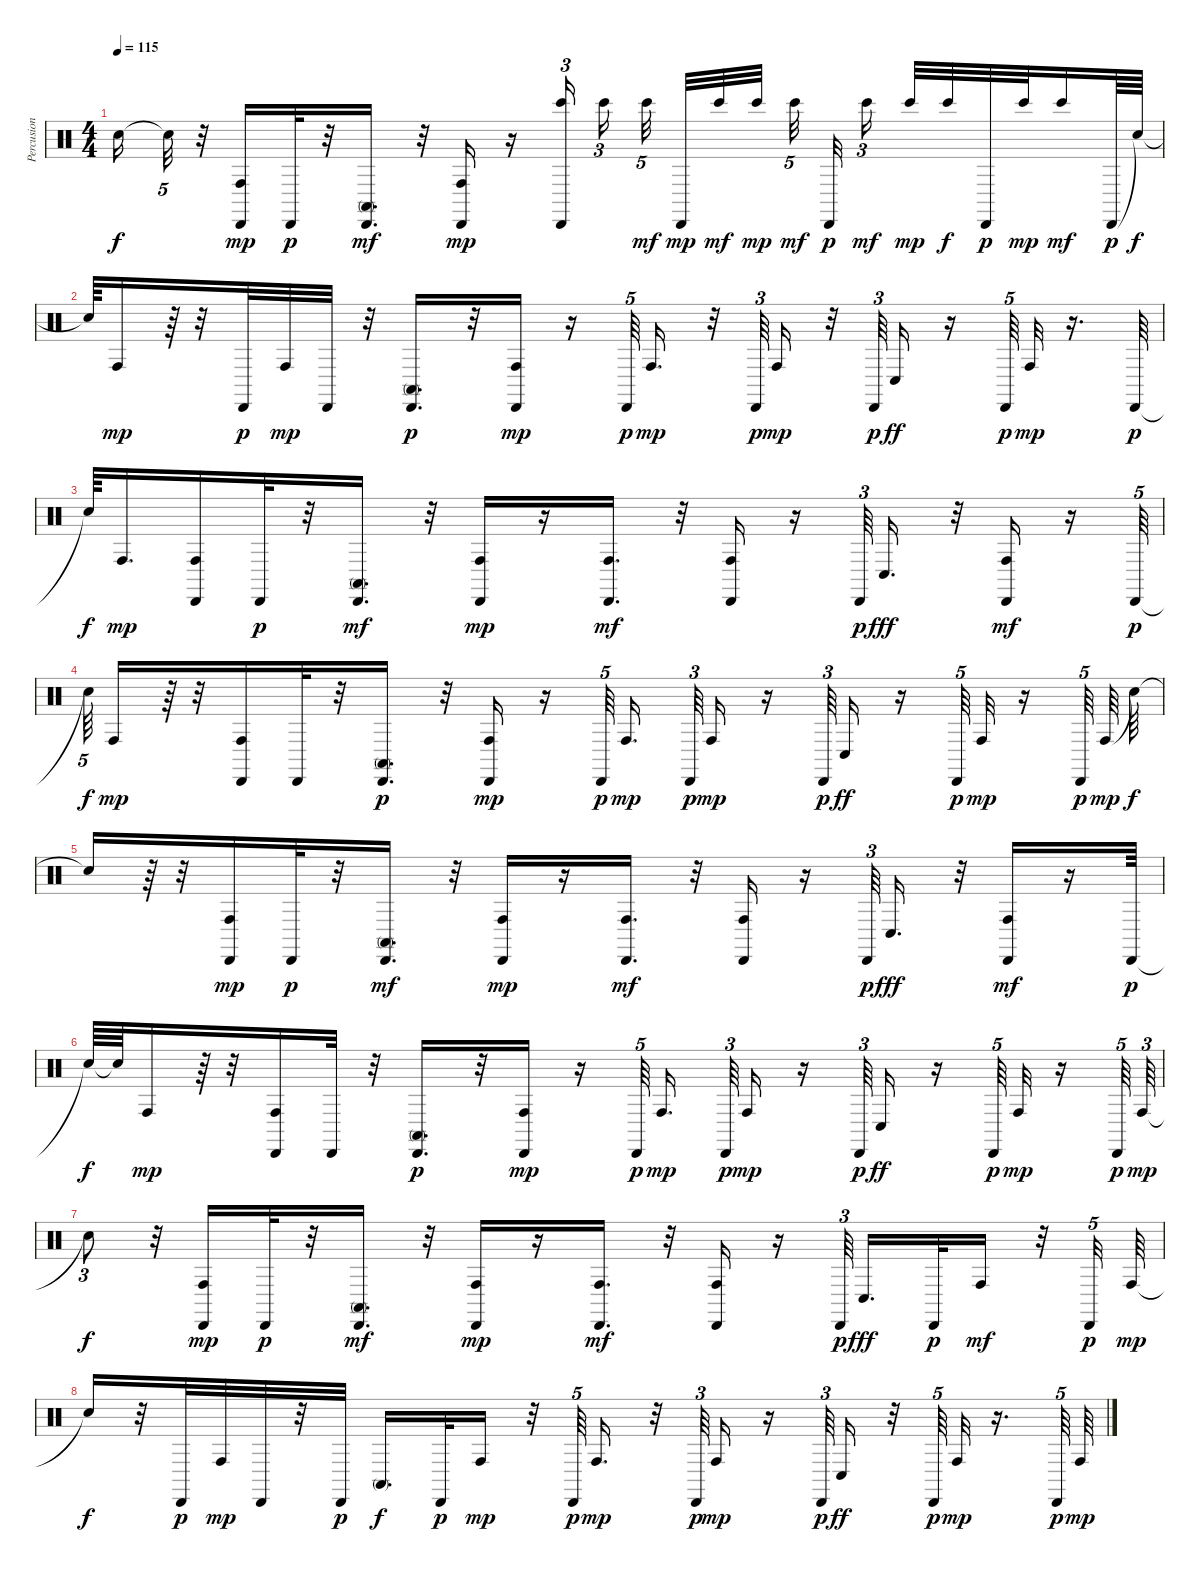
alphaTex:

\track ("Percusion" "Percusion") {instrument percussion}
\staff {score}
\articulation defaults
\ts (4 4)
\tempo 115
\clef neutral
\ks c "Snare (hit)"{t}.16{dy f} "Snare (hit)"{t}.32{tu (5 4)}
r.32 ("Cabasa (hit)" "Conga high (hit)").16{dy mp} "Cabasa (hit)".32{dy p} r.32 ("Cabasa (hit)" "Conga high (mute)").16{d dy mf} r.32 ("Cabasa (hit)" "Conga high (hit)").16{dy mp} r.16 ("Cabasa (hit)" "Bongo High (hit)").16{tu (3 2)} "Bongo High (hit)".16{tu (3 2)} "Bongo High (hit)".32{tu (5 4) dy mf beam splitsecondary} "Cabasa (hit)".32{dy mp} "Bongo High (hit)".32{dy mf} "Bongo High (hit)".32{dy mp beam splitsecondary} "Bongo High (hit)".32{tu (5 4) dy mf} "Cabasa (hit)".32{dy p} "Bongo High (hit)".16{tu (3 2) dy mf beam splitsecondary} "Bongo High (hit)".32{dy mp} "Bongo High (hit)".32{dy f} "Cabasa (hit)".32{dy p} "Bongo High (hit)".32{dy mp} "Bongo High (hit)".16{dy mf} "Cabasa (hit)".64{dy p} "Snare (hit)"{t}.64{dy f} |
"Snare (hit)"{t}.64 "Conga high (hit)".16{dy mp} r.64 r.32 "Cabasa (hit)".32{dy p} "Conga high (hit)".32{dy mp} "Cabasa (hit)".32 r.32 ("Cabasa (hit)" "Conga high (mute)").16{d dy p} r.32 ("Cabasa (hit)" "Conga high (hit)").16{dy mp} r.16 "Cabasa (hit)".64{tu (5 4) dy p} "Conga high (hit)".16{d dy mp} r.32 "Cabasa (hit)".64{tu (3 2) dy p} "Conga high (hit)".16{dy mp} r.32 "Cabasa (hit)".64{tu (3 2) dy p} "Conga low (hit)".16{dy ff} r.16 "Cabasa (hit)".64{tu (5 4) dy p} "Conga high (hit)".32{dy mp} r.16{d} "Cabasa (hit)".64{dy p} |
"Snare (hit)"{t}.64{dy f} "Conga high (hit)".16{d dy mp} ("Cabasa (hit)" "Conga high (hit)").16 "Cabasa (hit)".32{dy p} r.32 ("Cabasa (hit)" "Conga high (mute)").16{d dy mf} r.32 ("Cabasa (hit)" "Conga high (hit)").16{dy mp} r.16 ("Cabasa (hit)" "Conga high (hit)").16{d dy mf} r.32 ("Cabasa (hit)" "Conga high (hit)").16 r.16 "Cabasa (hit)".64{tu (3 2) dy p} "Conga low (hit)".16{d dy fff} r.32 ("Cabasa (hit)" "Conga high (hit)").16{dy mf} r.16 "Cabasa (hit)".64{tu (5 4) dy p} |
"Snare (hit)"{t}.64{tu (5 4) dy f} "Conga high (hit)".16{dy mp} r.64 r.32 ("Cabasa (hit)" "Conga high (hit)").16 "Cabasa (hit)".32 r.32 ("Cabasa (hit)" "Conga high (mute)").16{d dy p} r.32 ("Cabasa (hit)" "Conga high (hit)").16{dy mp} r.16 "Cabasa (hit)".64{tu (5 4) dy p} "Conga high (hit)".16{d dy mp beam splitsecondary} "Cabasa (hit)".64{tu (3 2) dy p} "Conga high (hit)".16{dy mp} r.16 "Cabasa (hit)".64{tu (3 2) dy p} "Conga low (hit)".16{dy ff} r.16 "Cabasa (hit)".64{tu (5 4) dy p} "Conga high (hit)".32{dy mp} r.16 "Cabasa (hit)".64{tu (5 4) dy p} "Conga high (hit)".64{dy mp} "Snare (hit)"{t}.64{dy f} |
"Snare (hit)"{t}.16 r.64 r.32 ("Cabasa (hit)" "Conga high (hit)").16{dy mp} "Cabasa (hit)".32{dy p} r.32 ("Cabasa (hit)" "Conga high (mute)").16{d dy mf} r.32 ("Cabasa (hit)" "Conga high (hit)").16{dy mp} r.16 ("Cabasa (hit)" "Conga high (hit)").16{d dy mf} r.32 ("Cabasa (hit)" "Conga high (hit)").16 r.16 "Cabasa (hit)".64{tu (3 2) dy p} "Conga low (hit)".16{d dy fff} r.32 ("Cabasa (hit)" "Conga high (hit)").16{dy mf} r.16 "Cabasa (hit)".64{dy p} |
"Snare (hit)"{t}.64{dy f} "Snare (hit)"{t}.64 "Conga high (hit)".16{dy mp} r.64 r.32 ("Cabasa (hit)" "Conga high (hit)").16 "Cabasa (hit)".32 r.32 ("Cabasa (hit)" "Conga high (mute)").16{d dy p} r.32 ("Cabasa (hit)" "Conga high (hit)").16{dy mp} r.16 "Cabasa (hit)".64{tu (5 4) dy p beam splitsecondary} "Conga high (hit)".16{d dy mp beam splitsecondary} "Cabasa (hit)".64{tu (3 2) dy p} "Conga high (hit)".16{dy mp} r.16 "Cabasa (hit)".64{tu (3 2) dy p} "Conga low (hit)".16{dy ff} r.16 "Cabasa (hit)".64{tu (5 4) dy p} "Conga high (hit)".32{dy mp} r.16 "Cabasa (hit)".64{tu (5 4) dy p} "Conga high (hit)".64{tu (3 2) dy mp} |
"Snare (hit)"{t}.8{tu (3 2) dy f} r.32 ("Cabasa (hit)" "Conga high (hit)").16{dy mp} "Cabasa (hit)".32{dy p} r.32 ("Cabasa (hit)" "Conga high (mute)").16{d dy mf} r.32 ("Cabasa (hit)" "Conga high (hit)").16{dy mp} r.16 ("Cabasa (hit)" "Conga high (hit)").16{d dy mf} r.32 ("Cabasa (hit)" "Conga high (hit)").16 r.16 "Cabasa (hit)".64{tu (3 2) dy p} "Conga low (hit)".16{d dy fff} "Cabasa (hit)".32{dy p} "Conga high (hit)".16{dy mf} r.32 "Cabasa (hit)".32{tu (5 4) dy p} "Conga high (hit)".64{dy mp} |
"Snare (hit)"{t}.16{dy f} r.32 "Cabasa (hit)".32{dy p} "Conga high (hit)".32{dy mp} "Cabasa (hit)".32 r.32 "Cabasa (hit)".32{dy p} "Conga high (mute)".16{d dy f} "Cabasa (hit)".32{dy p} "Conga high (hit)".16{dy mp} r.32 "Cabasa (hit)".64{tu (5 4) dy p} "Conga high (hit)".16{d dy mp} r.32 "Cabasa (hit)".64{tu (3 2) dy p} "Conga high (hit)".16{dy mp} r.16 "Cabasa (hit)".64{tu (3 2) dy p} "Conga low (hit)".16{dy ff} r.32 "Cabasa (hit)".64{tu (5 4) dy p} "Conga high (hit)".32{dy mp} r.16{d} "Cabasa (hit)".64{tu (5 4) dy p} "Conga high (hit)".64{dy mp}
